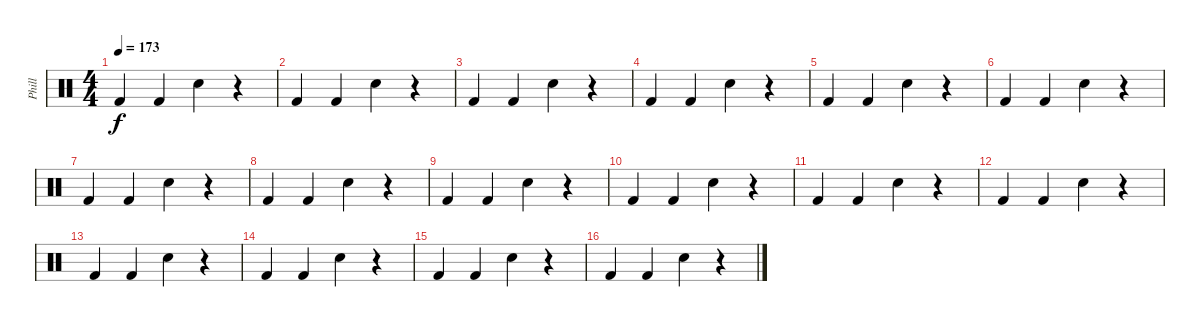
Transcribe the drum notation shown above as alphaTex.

\track ("Phill" "Phill") {instrument percussion}
\staff {score}
\articulation defaults
\ts (4 4)
\tempo 173
\clef neutral
\ks c "Kick (hit) 2".4{dy f} "Kick (hit) 2".4 "Electric Snare (hit)".4
r.4 |
"Kick (hit) 2".4 "Kick (hit) 2".4 "Electric Snare (hit)".4 r.4 |
"Kick (hit) 2".4 "Kick (hit) 2".4 "Electric Snare (hit)".4 r.4 |
"Kick (hit) 2".4 "Kick (hit) 2".4 "Electric Snare (hit)".4 r.4 |
"Kick (hit) 2".4 "Kick (hit) 2".4 "Electric Snare (hit)".4 r.4 |
"Kick (hit) 2".4 "Kick (hit) 2".4 "Electric Snare (hit)".4 r.4 |
"Kick (hit) 2".4 "Kick (hit) 2".4 "Electric Snare (hit)".4 r.4 |
"Kick (hit) 2".4 "Kick (hit) 2".4 "Electric Snare (hit)".4 r.4 |
"Kick (hit) 2".4 "Kick (hit) 2".4 "Electric Snare (hit)".4 r.4 |
"Kick (hit) 2".4 "Kick (hit) 2".4 "Electric Snare (hit)".4 r.4 |
"Kick (hit) 2".4 "Kick (hit) 2".4 "Electric Snare (hit)".4 r.4 |
"Kick (hit) 2".4 "Kick (hit) 2".4 "Electric Snare (hit)".4 r.4 |
"Kick (hit) 2".4 "Kick (hit) 2".4 "Electric Snare (hit)".4 r.4 |
"Kick (hit) 2".4 "Kick (hit) 2".4 "Electric Snare (hit)".4 r.4 |
"Kick (hit) 2".4 "Kick (hit) 2".4 "Electric Snare (hit)".4 r.4 |
"Kick (hit) 2".4 "Kick (hit) 2".4 "Electric Snare (hit)".4 r.4
